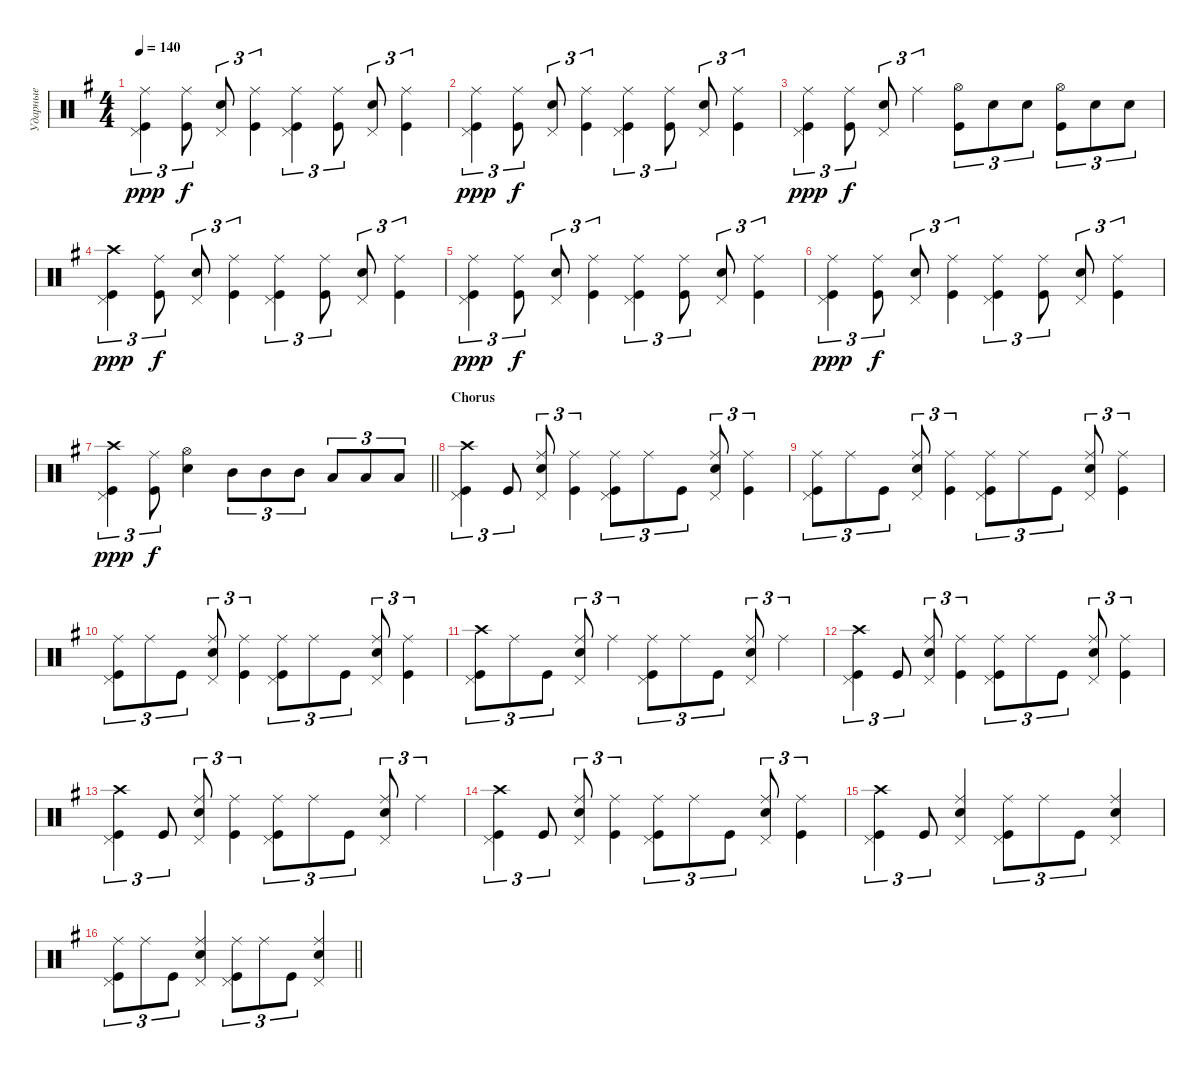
\track ("Ударные" "Ударные") {instrument percussion}
\staff {score}
\articulation defaults
\ts (4 4)
\tempo 140
\clef neutral
\ks eminor
("Kick (hit)" "Pedal Hi-Hat (hit)" "Ride (middle)").4{tu (3 2) dy ppp} ("Kick (hit)" "Ride (middle)").8{tu (3 2) dy f} ("Snare (hit) 2" "Pedal Hi-Hat (hit)").8{tu (3 2)} ("Kick (hit)" "Ride (middle)").4{tu (3 2)} ("Kick (hit)" "Pedal Hi-Hat (hit)" "Ride (middle)").4{tu (3 2)} ("Kick (hit)" "Ride (middle)").8{tu (3 2)} ("Snare (hit) 2" "Pedal Hi-Hat (hit)").8{tu (3 2)} ("Kick (hit)" "Ride (middle)").4{tu (3 2)} |
("Kick (hit)" "Pedal Hi-Hat (hit)" "Ride (middle)").4{tu (3 2) dy ppp} ("Kick (hit)" "Ride (middle)").8{tu (3 2) dy f} ("Snare (hit) 2" "Pedal Hi-Hat (hit)").8{tu (3 2)} ("Kick (hit)" "Ride (middle)").4{tu (3 2)} ("Kick (hit)" "Pedal Hi-Hat (hit)" "Ride (middle)").4{tu (3 2)} ("Kick (hit)" "Ride (middle)").8{tu (3 2)} ("Snare (hit) 2" "Pedal Hi-Hat (hit)").8{tu (3 2)} ("Kick (hit)" "Ride (middle)").4{tu (3 2)} |
("Kick (hit)" "Pedal Hi-Hat (hit)" "Ride (middle)").4{tu (3 2) dy ppp} ("Kick (hit)" "Ride (middle)").8{tu (3 2) dy f} ("Snare (hit) 2" "Pedal Hi-Hat (hit)").8{tu (3 2)} "Ride (middle)".4{tu (3 2)} ("Kick (hit)" "Hi-Hat (open)").8{tu (3 2)} "Snare (hit) 2".8{tu (3 2)} "Snare (hit) 2".8{tu (3 2)} ("Kick (hit)" "Hi-Hat (open)").8{tu (3 2)} "Snare (hit) 2".8{tu (3 2)} "Snare (hit) 2".8{tu (3 2)} |
("Kick (hit)" "Pedal Hi-Hat (hit)" "Crash high (hit)").4{tu (3 2) dy ppp} ("Kick (hit)" "Ride (middle)").8{tu (3 2) dy f} ("Snare (hit) 2" "Pedal Hi-Hat (hit)").8{tu (3 2)} ("Kick (hit)" "Ride (middle)").4{tu (3 2)} ("Kick (hit)" "Pedal Hi-Hat (hit)" "Ride (middle)").4{tu (3 2)} ("Kick (hit)" "Ride (middle)").8{tu (3 2)} ("Snare (hit) 2" "Pedal Hi-Hat (hit)").8{tu (3 2)} ("Kick (hit)" "Ride (middle)").4{tu (3 2)} |
("Kick (hit)" "Pedal Hi-Hat (hit)" "Ride (middle)").4{tu (3 2) dy ppp} ("Kick (hit)" "Ride (middle)").8{tu (3 2) dy f} ("Snare (hit) 2" "Pedal Hi-Hat (hit)").8{tu (3 2)} ("Kick (hit)" "Ride (middle)").4{tu (3 2)} ("Kick (hit)" "Pedal Hi-Hat (hit)" "Ride (middle)").4{tu (3 2)} ("Kick (hit)" "Ride (middle)").8{tu (3 2)} ("Snare (hit) 2" "Pedal Hi-Hat (hit)").8{tu (3 2)} ("Kick (hit)" "Ride (middle)").4{tu (3 2)} |
("Kick (hit)" "Pedal Hi-Hat (hit)" "Ride (middle)").4{tu (3 2) dy ppp} ("Kick (hit)" "Ride (middle)").8{tu (3 2) dy f} ("Snare (hit) 2" "Pedal Hi-Hat (hit)").8{tu (3 2)} ("Kick (hit)" "Ride (middle)").4{tu (3 2)} ("Kick (hit)" "Pedal Hi-Hat (hit)" "Ride (middle)").4{tu (3 2)} ("Kick (hit)" "Ride (middle)").8{tu (3 2)} ("Snare (hit) 2" "Pedal Hi-Hat (hit)").8{tu (3 2)} ("Kick (hit)" "Ride (middle)").4{tu (3 2)} |
\barLineRight lightlight
("Kick (hit)" "Pedal Hi-Hat (hit)" "Crash high (hit)").4{tu (3 2) dy ppp} ("Kick (hit)" "Ride (middle)").8{tu (3 2) dy f} ("Snare (hit) 2" "Hi-Hat (open)").4 "Mid Tom (hit)".8{tu (3 2)} "Mid Tom (hit)".8{tu (3 2)} "Mid Tom (hit)".8{tu (3 2)} "Low Tom (hit)".8{tu (3 2)} "Low Tom (hit)".8{tu (3 2)} "Low Tom (hit)".8{tu (3 2)} |
\section ("" "Chorus")
("Kick (hit)" "Crash high (hit)" "Pedal Hi-Hat (hit)").4{tu (3 2)} "Kick (hit)".8{tu (3 2)} ("Snare (hit) 2" "Ride (middle)" "Pedal Hi-Hat (hit)").8{tu (3 2)} ("Kick (hit)" "Ride (middle)").4{tu (3 2)} ("Kick (hit)" "Ride (middle)" "Pedal Hi-Hat (hit)").8{tu (3 2)} "Ride (middle)".8{tu (3 2)} "Kick (hit)".8{tu (3 2)} ("Snare (hit) 2" "Ride (middle)" "Pedal Hi-Hat (hit)").8{tu (3 2)} ("Kick (hit)" "Ride (middle)").4{tu (3 2)} |
("Kick (hit)" "Ride (middle)" "Pedal Hi-Hat (hit)").8{tu (3 2)} "Ride (middle)".8{tu (3 2)} "Kick (hit)".8{tu (3 2)} ("Snare (hit) 2" "Ride (middle)" "Pedal Hi-Hat (hit)").8{tu (3 2)} ("Kick (hit)" "Ride (middle)").4{tu (3 2)} ("Kick (hit)" "Ride (middle)" "Pedal Hi-Hat (hit)").8{tu (3 2)} "Ride (middle)".8{tu (3 2)} "Kick (hit)".8{tu (3 2)} ("Snare (hit) 2" "Ride (middle)" "Pedal Hi-Hat (hit)").8{tu (3 2)} ("Kick (hit)" "Ride (middle)").4{tu (3 2)} |
("Kick (hit)" "Ride (middle)" "Pedal Hi-Hat (hit)").8{tu (3 2)} "Ride (middle)".8{tu (3 2)} "Kick (hit)".8{tu (3 2)} ("Snare (hit) 2" "Ride (middle)" "Pedal Hi-Hat (hit)").8{tu (3 2)} ("Kick (hit)" "Ride (middle)").4{tu (3 2)} ("Kick (hit)" "Ride (middle)" "Pedal Hi-Hat (hit)").8{tu (3 2)} "Ride (middle)".8{tu (3 2)} "Kick (hit)".8{tu (3 2)} ("Snare (hit) 2" "Ride (middle)" "Pedal Hi-Hat (hit)").8{tu (3 2)} ("Kick (hit)" "Ride (middle)").4{tu (3 2)} |
("Kick (hit)" "Crash high (hit)" "Pedal Hi-Hat (hit)").8{tu (3 2)} "Ride (middle)".8{tu (3 2)} "Kick (hit)".8{tu (3 2)} ("Snare (hit) 2" "Ride (middle)" "Pedal Hi-Hat (hit)").8{tu (3 2)} "Ride (middle)".4{tu (3 2)} ("Kick (hit)" "Ride (middle)" "Pedal Hi-Hat (hit)").8{tu (3 2)} "Ride (middle)".8{tu (3 2)} "Kick (hit)".8{tu (3 2)} ("Snare (hit) 2" "Ride (middle)" "Pedal Hi-Hat (hit)").8{tu (3 2)} "Ride (middle)".4{tu (3 2)} |
("Kick (hit)" "Crash high (hit)" "Pedal Hi-Hat (hit)").4{tu (3 2)} "Kick (hit)".8{tu (3 2)} ("Snare (hit) 2" "Ride (middle)" "Pedal Hi-Hat (hit)").8{tu (3 2)} ("Kick (hit)" "Ride (middle)").4{tu (3 2)} ("Kick (hit)" "Ride (middle)" "Pedal Hi-Hat (hit)").8{tu (3 2)} "Ride (middle)".8{tu (3 2)} "Kick (hit)".8{tu (3 2)} ("Snare (hit) 2" "Ride (middle)" "Pedal Hi-Hat (hit)").8{tu (3 2)} ("Kick (hit)" "Ride (middle)").4{tu (3 2)} |
("Kick (hit)" "Crash high (hit)" "Pedal Hi-Hat (hit)").4{tu (3 2)} "Kick (hit)".8{tu (3 2)} ("Snare (hit) 2" "Ride (middle)" "Pedal Hi-Hat (hit)").8{tu (3 2)} ("Kick (hit)" "Ride (middle)").4{tu (3 2)} ("Kick (hit)" "Ride (middle)" "Pedal Hi-Hat (hit)").8{tu (3 2)} "Ride (middle)".8{tu (3 2)} "Kick (hit)".8{tu (3 2)} ("Snare (hit) 2" "Ride (middle)" "Pedal Hi-Hat (hit)").8{tu (3 2)} "Ride (middle)".4{tu (3 2)} |
("Kick (hit)" "Crash high (hit)" "Pedal Hi-Hat (hit)").4{tu (3 2)} "Kick (hit)".8{tu (3 2)} ("Snare (hit) 2" "Ride (middle)" "Pedal Hi-Hat (hit)").8{tu (3 2)} ("Kick (hit)" "Ride (middle)").4{tu (3 2)} ("Kick (hit)" "Ride (middle)" "Pedal Hi-Hat (hit)").8{tu (3 2)} "Ride (middle)".8{tu (3 2)} "Kick (hit)".8{tu (3 2)} ("Snare (hit) 2" "Ride (middle)" "Pedal Hi-Hat (hit)").8{tu (3 2)} ("Kick (hit)" "Ride (middle)").4{tu (3 2)} |
("Kick (hit)" "Crash high (hit)" "Pedal Hi-Hat (hit)").4{tu (3 2)} "Kick (hit)".8{tu (3 2)} ("Snare (hit) 2" "Ride (middle)" "Pedal Hi-Hat (hit)").4 ("Kick (hit)" "Ride (middle)" "Pedal Hi-Hat (hit)").8{tu (3 2)} "Ride (middle)".8{tu (3 2)} "Kick (hit)".8{tu (3 2)} ("Snare (hit) 2" "Ride (middle)" "Pedal Hi-Hat (hit)").4 |
\barLineRight lightlight
("Kick (hit)" "Ride (middle)" "Pedal Hi-Hat (hit)").8{tu (3 2)} "Ride (middle)".8{tu (3 2)} "Kick (hit)".8{tu (3 2)} ("Snare (hit) 2" "Ride (middle)" "Pedal Hi-Hat (hit)").4 ("Kick (hit)" "Ride (middle)" "Pedal Hi-Hat (hit)").8{tu (3 2)} "Ride (middle)".8{tu (3 2)} "Kick (hit)".8{tu (3 2)} ("Snare (hit) 2" "Ride (middle)" "Pedal Hi-Hat (hit)").4
